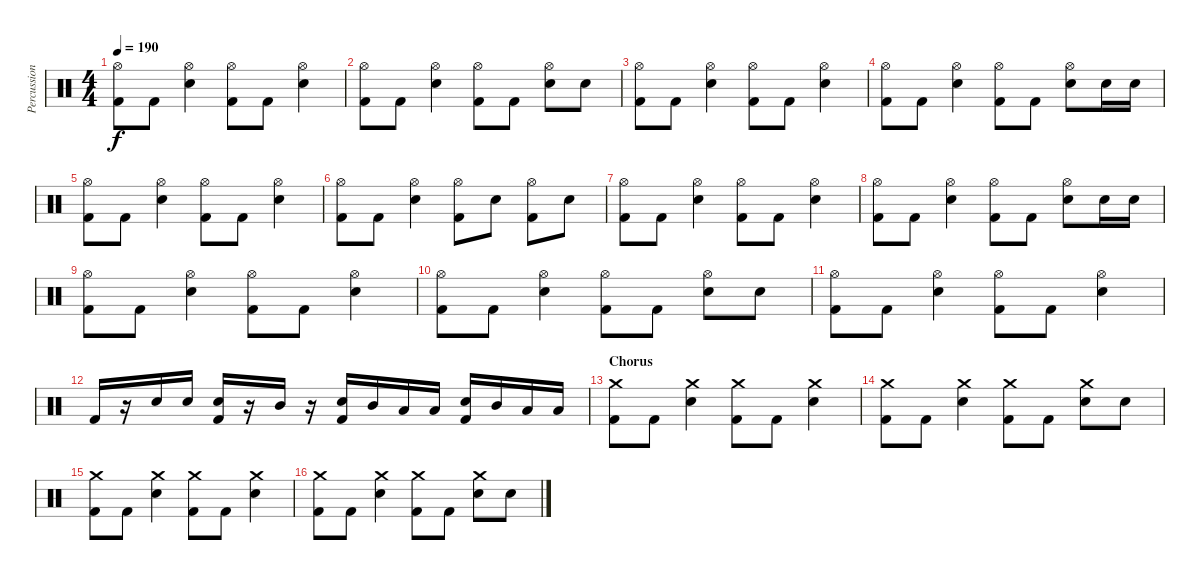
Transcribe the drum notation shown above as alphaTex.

\track ("Percussion" "Percussion") {instrument percussion}
\staff {score}
\articulation defaults
\ts (4 4)
\tempo 190
\clef neutral
\ks c
("Hi-Hat (open)" "Kick (hit) 2").8{dy f} "Kick (hit) 2".8 ("Hi-Hat (open)" "Snare (hit) 2").4 ("Hi-Hat (open)" "Kick (hit) 2").8 "Kick (hit) 2".8 ("Hi-Hat (open)" "Snare (hit) 2").4 |
("Hi-Hat (open)" "Kick (hit) 2").8 "Kick (hit) 2".8 ("Hi-Hat (open)" "Snare (hit) 2").4 ("Hi-Hat (open)" "Kick (hit) 2").8 "Kick (hit) 2".8 ("Hi-Hat (open)" "Snare (hit) 2").8 "Snare (hit) 2".8 |
("Hi-Hat (open)" "Kick (hit) 2").8 "Kick (hit) 2".8 ("Hi-Hat (open)" "Snare (hit) 2").4 ("Hi-Hat (open)" "Kick (hit) 2").8 "Kick (hit) 2".8 ("Hi-Hat (open)" "Snare (hit) 2").4 |
("Hi-Hat (open)" "Kick (hit) 2").8 "Kick (hit) 2".8 ("Hi-Hat (open)" "Snare (hit) 2").4 ("Hi-Hat (open)" "Kick (hit) 2").8 "Kick (hit) 2".8 ("Hi-Hat (open)" "Snare (hit) 2").8 "Snare (hit) 2".16 "Snare (hit) 2".16 |
("Hi-Hat (open)" "Kick (hit) 2").8 "Kick (hit) 2".8 ("Hi-Hat (open)" "Snare (hit) 2").4 ("Hi-Hat (open)" "Kick (hit) 2").8 "Kick (hit) 2".8 ("Hi-Hat (open)" "Snare (hit) 2").4 |
("Hi-Hat (open)" "Kick (hit) 2").8 "Kick (hit) 2".8 ("Hi-Hat (open)" "Snare (hit) 2").4 ("Hi-Hat (open)" "Kick (hit) 2").8 "Snare (hit) 2".8 ("Hi-Hat (open)" "Kick (hit) 2").8 "Snare (hit) 2".8 |
("Hi-Hat (open)" "Kick (hit) 2").8 "Kick (hit) 2".8 ("Hi-Hat (open)" "Snare (hit) 2").4 ("Hi-Hat (open)" "Kick (hit) 2").8 "Kick (hit) 2".8 ("Hi-Hat (open)" "Snare (hit) 2").4 |
("Hi-Hat (open)" "Kick (hit) 2").8 "Kick (hit) 2".8 ("Hi-Hat (open)" "Snare (hit) 2").4 ("Hi-Hat (open)" "Kick (hit) 2").8 "Kick (hit) 2".8 ("Hi-Hat (open)" "Snare (hit) 2").8 "Snare (hit) 2".16 "Snare (hit) 2".16 |
("Hi-Hat (open)" "Kick (hit) 2").8 "Kick (hit) 2".8 ("Hi-Hat (open)" "Snare (hit) 2").4 ("Hi-Hat (open)" "Kick (hit) 2").8 "Kick (hit) 2".8 ("Hi-Hat (open)" "Snare (hit) 2").4 |
("Hi-Hat (open)" "Kick (hit) 2").8 "Kick (hit) 2".8 ("Hi-Hat (open)" "Snare (hit) 2").4 ("Hi-Hat (open)" "Kick (hit) 2").8 "Kick (hit) 2".8 ("Hi-Hat (open)" "Snare (hit) 2").8 "Snare (hit) 2".8 |
("Hi-Hat (open)" "Kick (hit) 2").8 "Kick (hit) 2".8 ("Hi-Hat (open)" "Snare (hit) 2").4 ("Hi-Hat (open)" "Kick (hit) 2").8 "Kick (hit) 2".8 ("Hi-Hat (open)" "Snare (hit) 2").4 |
"Kick (hit) 2".16 r.16 "Snare (hit) 2".16 "Snare (hit) 2".16 ("Snare (hit) 2" "Kick (hit) 2").16 r.16 "Mid Tom (hit)".16 r.16 ("Snare (hit) 2" "Kick (hit) 2").16 "Mid Tom (hit)".16 "Low Tom (hit)".16 "Low Tom (hit)".16 ("Snare (hit) 2" "Kick (hit) 2").16 "Mid Tom (hit)".16 "Low Tom (hit)".16 "Low Tom (hit)".16 |
\section ("" "Chorus")
("Crash medium (hit)" "Kick (hit) 2").8 "Kick (hit) 2".8 ("Crash medium (hit)" "Snare (hit) 2").4 ("Crash medium (hit)" "Kick (hit) 2").8 "Kick (hit) 2".8 ("Crash medium (hit)" "Snare (hit) 2").4 |
("Crash medium (hit)" "Kick (hit) 2").8 "Kick (hit) 2".8 ("Crash medium (hit)" "Snare (hit) 2").4 ("Crash medium (hit)" "Kick (hit) 2").8 "Kick (hit) 2".8 ("Crash medium (hit)" "Snare (hit) 2").8 "Snare (hit) 2".8 |
("Crash medium (hit)" "Kick (hit) 2").8 "Kick (hit) 2".8 ("Crash medium (hit)" "Snare (hit) 2").4 ("Crash medium (hit)" "Kick (hit) 2").8 "Kick (hit) 2".8 ("Crash medium (hit)" "Snare (hit) 2").4 |
("Crash medium (hit)" "Kick (hit) 2").8 "Kick (hit) 2".8 ("Crash medium (hit)" "Snare (hit) 2").4 ("Crash medium (hit)" "Kick (hit) 2").8 "Kick (hit) 2".8 ("Crash medium (hit)" "Snare (hit) 2").8 "Snare (hit) 2".8
